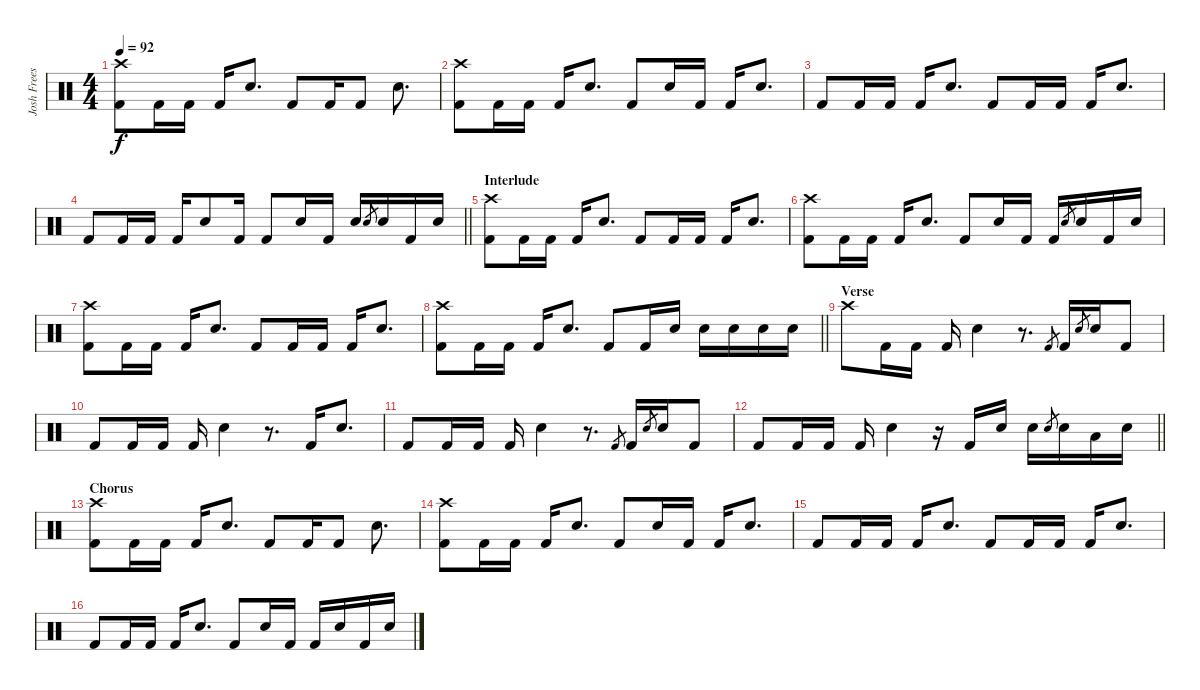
\track ("Josh Freese (Studio Drummer)" "Josh Frees") {instrument percussion}
\staff {score}
\articulation defaults
\ts (4 4)
\tempo 92
\clef neutral
\ks c
("Crash high (hit)" "Kick (hit) 2").8{dy f} "Kick (hit) 2".16 "Kick (hit) 2".16 "Kick (hit) 2".16 "Electric Snare (hit)".8{d} "Kick (hit) 2".8 "Kick (hit) 2".16 "Kick (hit) 2".8 "Electric Snare (hit)".8{d} |
("Crash high (hit)" "Kick (hit) 2").8 "Kick (hit) 2".16 "Kick (hit) 2".16 "Kick (hit) 2".16 "Electric Snare (hit)".8{d} "Kick (hit) 2".8 "Electric Snare (hit)".16 "Kick (hit) 2".16 "Kick (hit) 2".16 "Electric Snare (hit)".8{d} |
"Kick (hit) 2".8 "Kick (hit) 2".16 "Kick (hit) 2".16 "Kick (hit) 2".16 "Electric Snare (hit)".8{d} "Kick (hit) 2".8 "Kick (hit) 2".16 "Kick (hit) 2".16 "Kick (hit) 2".16 "Electric Snare (hit)".8{d} |
\barLineRight lightlight "Kick (hit) 2".8 "Kick (hit) 2".16 "Kick (hit) 2".16 "Kick (hit) 2".16 "Electric Snare (hit)".8 "Kick (hit) 2".16 "Kick (hit) 2".8 "Electric Snare (hit)".16 "Kick (hit) 2".16 "Electric Snare (hit)".16 "Electric Snare (hit)".8{gr} "Electric Snare (hit)".16 "Kick (hit) 2".16 "Electric Snare (hit)".16
|
\section ("" "Interlude")
("Crash high (hit)" "Kick (hit) 2").8 "Kick (hit) 2".16 "Kick (hit) 2".16 "Kick (hit) 2".16 "Electric Snare (hit)".8{d} "Kick (hit) 2".8 "Kick (hit) 2".16 "Kick (hit) 2".16 "Kick (hit) 2".16 "Electric Snare (hit)".8{d} |
("Crash high (hit)" "Kick (hit) 2").8 "Kick (hit) 2".16 "Kick (hit) 2".16 "Kick (hit) 2".16 "Electric Snare (hit)".8{d} "Kick (hit) 2".8 "Electric Snare (hit)".16 "Kick (hit) 2".16 "Kick (hit) 2".16 "Electric Snare (hit)".8{gr} "Electric Snare (hit)".16 "Kick (hit) 2".16 "Electric Snare (hit)".16 |
("Crash high (hit)" "Kick (hit) 2").8 "Kick (hit) 2".16 "Kick (hit) 2".16 "Kick (hit) 2".16 "Electric Snare (hit)".8{d} "Kick (hit) 2".8 "Kick (hit) 2".16 "Kick (hit) 2".16 "Kick (hit) 2".16 "Electric Snare (hit)".8{d} |
\barLineRight lightlight
("Crash high (hit)" "Kick (hit) 2").8 "Kick (hit) 2".16 "Kick (hit) 2".16 "Kick (hit) 2".16 "Electric Snare (hit)".8{d} "Kick (hit) 2".8 "Kick (hit) 2".16 "Electric Snare (hit)".16 "Electric Snare (hit)".16 "Electric Snare (hit)".16 "Electric Snare (hit)".16 "Electric Snare (hit)".16 |
\section ("" "Verse")
"Crash high (hit)".8 "Kick (hit) 2".16 "Kick (hit) 2".16 "Kick (hit) 2".16 "Electric Snare (hit)".4 r.8{d} "Kick (hit) 2".8{gr} "Kick (hit) 2".16 "Electric Snare (hit)".8{gr} "Electric Snare (hit)".16 "Kick (hit) 2".8 |
"Kick (hit) 2".8 "Kick (hit) 2".16 "Kick (hit) 2".16 "Kick (hit) 2".16 "Electric Snare (hit)".4 r.8{d} "Kick (hit) 2".16 "Electric Snare (hit)".8{d} |
"Kick (hit) 2".8 "Kick (hit) 2".16 "Kick (hit) 2".16 "Kick (hit) 2".16 "Electric Snare (hit)".4 r.8{d} "Kick (hit) 2".8{gr} "Kick (hit) 2".16 "Electric Snare (hit)".8{gr} "Electric Snare (hit)".16 "Kick (hit) 2".8 |
\barLineRight lightlight "Kick (hit) 2".8 "Kick (hit) 2".16 "Kick (hit) 2".16 "Kick (hit) 2".16 "Electric Snare (hit)".4
r.16 "Kick (hit) 2".16 "Electric Snare (hit)".16 "Electric Snare (hit)".16 "Electric Snare (hit)".8{gr} "Electric Snare (hit)".16 "Low Tom (hit)".16 "Electric Snare (hit)".16 |
\section ("" "Chorus")
("Crash high (hit)" "Kick (hit) 2").8 "Kick (hit) 2".16 "Kick (hit) 2".16 "Kick (hit) 2".16 "Electric Snare (hit)".8{d} "Kick (hit) 2".8 "Kick (hit) 2".16 "Kick (hit) 2".8 "Electric Snare (hit)".8{d} |
("Crash high (hit)" "Kick (hit) 2").8 "Kick (hit) 2".16 "Kick (hit) 2".16 "Kick (hit) 2".16 "Electric Snare (hit)".8{d} "Kick (hit) 2".8 "Electric Snare (hit)".16 "Kick (hit) 2".16 "Kick (hit) 2".16 "Electric Snare (hit)".8{d} |
"Kick (hit) 2".8 "Kick (hit) 2".16 "Kick (hit) 2".16 "Kick (hit) 2".16 "Electric Snare (hit)".8{d} "Kick (hit) 2".8 "Kick (hit) 2".16 "Kick (hit) 2".16 "Kick (hit) 2".16 "Electric Snare (hit)".8{d} |
"Kick (hit) 2".8 "Kick (hit) 2".16 "Kick (hit) 2".16 "Kick (hit) 2".16 "Electric Snare (hit)".8{d} "Kick (hit) 2".8 "Electric Snare (hit)".16 "Kick (hit) 2".16 "Kick (hit) 2".16 "Electric Snare (hit)".16 "Kick (hit) 2".16 "Electric Snare (hit)".16
